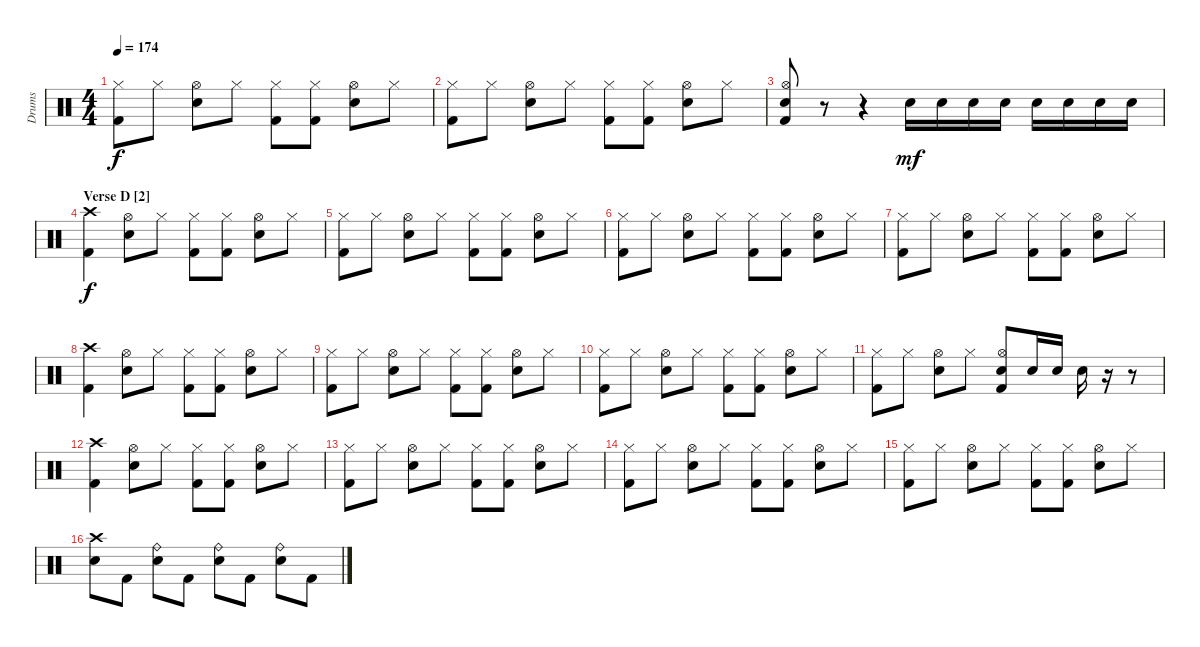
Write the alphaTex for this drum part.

\track ("Drums" "Drums") {instrument percussion}
\staff {score}
\articulation defaults
\ts (4 4)
\tempo 174
\clef neutral
\ks c
("Hi-Hat (closed)" "Kick (hit) 2").8{dy f} "Hi-Hat (closed)".8 ("Hi-Hat (open)" "Electric Snare (hit)").8 "Hi-Hat (closed)".8 ("Hi-Hat (closed)" "Kick (hit) 2").8 ("Hi-Hat (closed)" "Kick (hit) 2").8 ("Hi-Hat (open)" "Electric Snare (hit)").8 "Hi-Hat (closed)".8 |
("Hi-Hat (closed)" "Kick (hit) 2").8 "Hi-Hat (closed)".8 ("Hi-Hat (open)" "Electric Snare (hit)").8 "Hi-Hat (closed)".8 ("Hi-Hat (closed)" "Kick (hit) 2").8 ("Hi-Hat (closed)" "Kick (hit) 2").8 ("Hi-Hat (open)" "Electric Snare (hit)").8 "Hi-Hat (closed)".8 |
("Hi-Hat (open)" "Electric Snare (hit)" "Kick (hit) 2").8 r.8 r.4 "Electric Snare (hit)".16{dy mf} "Electric Snare (hit)".16 "Electric Snare (hit)".16 "Electric Snare (hit)".16 "Electric Snare (hit)".16 "Electric Snare (hit)".16 "Electric Snare (hit)".16 "Electric Snare (hit)".16 |
\section ("" "Verse D [2]")
("Crash high (hit)" "Kick (hit) 2").4{dy f} ("Hi-Hat (open)" "Electric Snare (hit)").8 "Hi-Hat (closed)".8 ("Hi-Hat (closed)" "Kick (hit) 2").8 ("Hi-Hat (closed)" "Kick (hit) 2").8 ("Hi-Hat (open)" "Electric Snare (hit)").8 "Hi-Hat (closed)".8 |
("Hi-Hat (closed)" "Kick (hit) 2").8 "Hi-Hat (closed)".8 ("Hi-Hat (open)" "Electric Snare (hit)").8 "Hi-Hat (closed)".8 ("Hi-Hat (closed)" "Kick (hit) 2").8 ("Hi-Hat (closed)" "Kick (hit) 2").8 ("Hi-Hat (open)" "Electric Snare (hit)").8 "Hi-Hat (closed)".8 |
("Hi-Hat (closed)" "Kick (hit) 2").8 "Hi-Hat (closed)".8 ("Hi-Hat (open)" "Electric Snare (hit)").8 "Hi-Hat (closed)".8 ("Hi-Hat (closed)" "Kick (hit) 2").8 ("Hi-Hat (closed)" "Kick (hit) 2").8 ("Hi-Hat (open)" "Electric Snare (hit)").8 "Hi-Hat (closed)".8 |
("Hi-Hat (closed)" "Kick (hit) 2").8 "Hi-Hat (closed)".8 ("Hi-Hat (open)" "Electric Snare (hit)").8 "Hi-Hat (closed)".8 ("Hi-Hat (closed)" "Kick (hit) 2").8 ("Hi-Hat (closed)" "Kick (hit) 2").8 ("Hi-Hat (open)" "Electric Snare (hit)").8 "Hi-Hat (closed)".8 |
("Crash high (hit)" "Kick (hit) 2").4 ("Hi-Hat (open)" "Electric Snare (hit)").8 "Hi-Hat (closed)".8 ("Hi-Hat (closed)" "Kick (hit) 2").8 ("Hi-Hat (closed)" "Kick (hit) 2").8 ("Hi-Hat (open)" "Electric Snare (hit)").8 "Hi-Hat (closed)".8 |
("Hi-Hat (closed)" "Kick (hit) 2").8 "Hi-Hat (closed)".8 ("Hi-Hat (open)" "Electric Snare (hit)").8 "Hi-Hat (closed)".8 ("Hi-Hat (closed)" "Kick (hit) 2").8 ("Hi-Hat (closed)" "Kick (hit) 2").8 ("Hi-Hat (open)" "Electric Snare (hit)").8 "Hi-Hat (closed)".8 |
("Hi-Hat (closed)" "Kick (hit) 2").8 "Hi-Hat (closed)".8 ("Hi-Hat (open)" "Electric Snare (hit)").8 "Hi-Hat (closed)".8 ("Hi-Hat (closed)" "Kick (hit) 2").8 ("Hi-Hat (closed)" "Kick (hit) 2").8 ("Hi-Hat (open)" "Electric Snare (hit)").8 "Hi-Hat (closed)".8 |
("Hi-Hat (closed)" "Kick (hit) 2").8 "Hi-Hat (closed)".8 ("Hi-Hat (open)" "Electric Snare (hit)").8 "Hi-Hat (closed)".8 ("Hi-Hat (open)" "Electric Snare (hit)" "Kick (hit) 2").8 "Electric Snare (hit)".16 "Electric Snare (hit)".16 "Electric Snare (hit)".16 r.16 r.8 |
("Crash high (hit)" "Kick (hit) 2").4 ("Hi-Hat (open)" "Electric Snare (hit)").8 "Hi-Hat (closed)".8 ("Hi-Hat (closed)" "Kick (hit) 2").8 ("Hi-Hat (closed)" "Kick (hit) 2").8 ("Hi-Hat (open)" "Electric Snare (hit)").8 "Hi-Hat (closed)".8 |
("Hi-Hat (closed)" "Kick (hit) 2").8 "Hi-Hat (closed)".8 ("Hi-Hat (open)" "Electric Snare (hit)").8 "Hi-Hat (closed)".8 ("Hi-Hat (closed)" "Kick (hit) 2").8 ("Hi-Hat (closed)" "Kick (hit) 2").8 ("Hi-Hat (open)" "Electric Snare (hit)").8 "Hi-Hat (closed)".8 |
("Hi-Hat (closed)" "Kick (hit) 2").8 "Hi-Hat (closed)".8 ("Hi-Hat (open)" "Electric Snare (hit)").8 "Hi-Hat (closed)".8 ("Hi-Hat (closed)" "Kick (hit) 2").8 ("Hi-Hat (closed)" "Kick (hit) 2").8 ("Hi-Hat (open)" "Electric Snare (hit)").8 "Hi-Hat (closed)".8 |
("Hi-Hat (closed)" "Kick (hit) 2").8 "Hi-Hat (closed)".8 ("Hi-Hat (open)" "Electric Snare (hit)").8 "Hi-Hat (closed)".8 ("Hi-Hat (closed)" "Kick (hit) 2").8 ("Hi-Hat (closed)" "Kick (hit) 2").8 ("Hi-Hat (open)" "Electric Snare (hit)").8 "Hi-Hat (closed)".8 |
("Crash high (hit)" "Electric Snare (hit)").8 "Kick (hit) 2".8 ("Ride (bell)" "Electric Snare (hit)").8 "Kick (hit) 2".8 ("Ride (bell)" "Electric Snare (hit)").8 "Kick (hit) 2".8 ("Ride (bell)" "Electric Snare (hit)").8 "Kick (hit) 2".8
